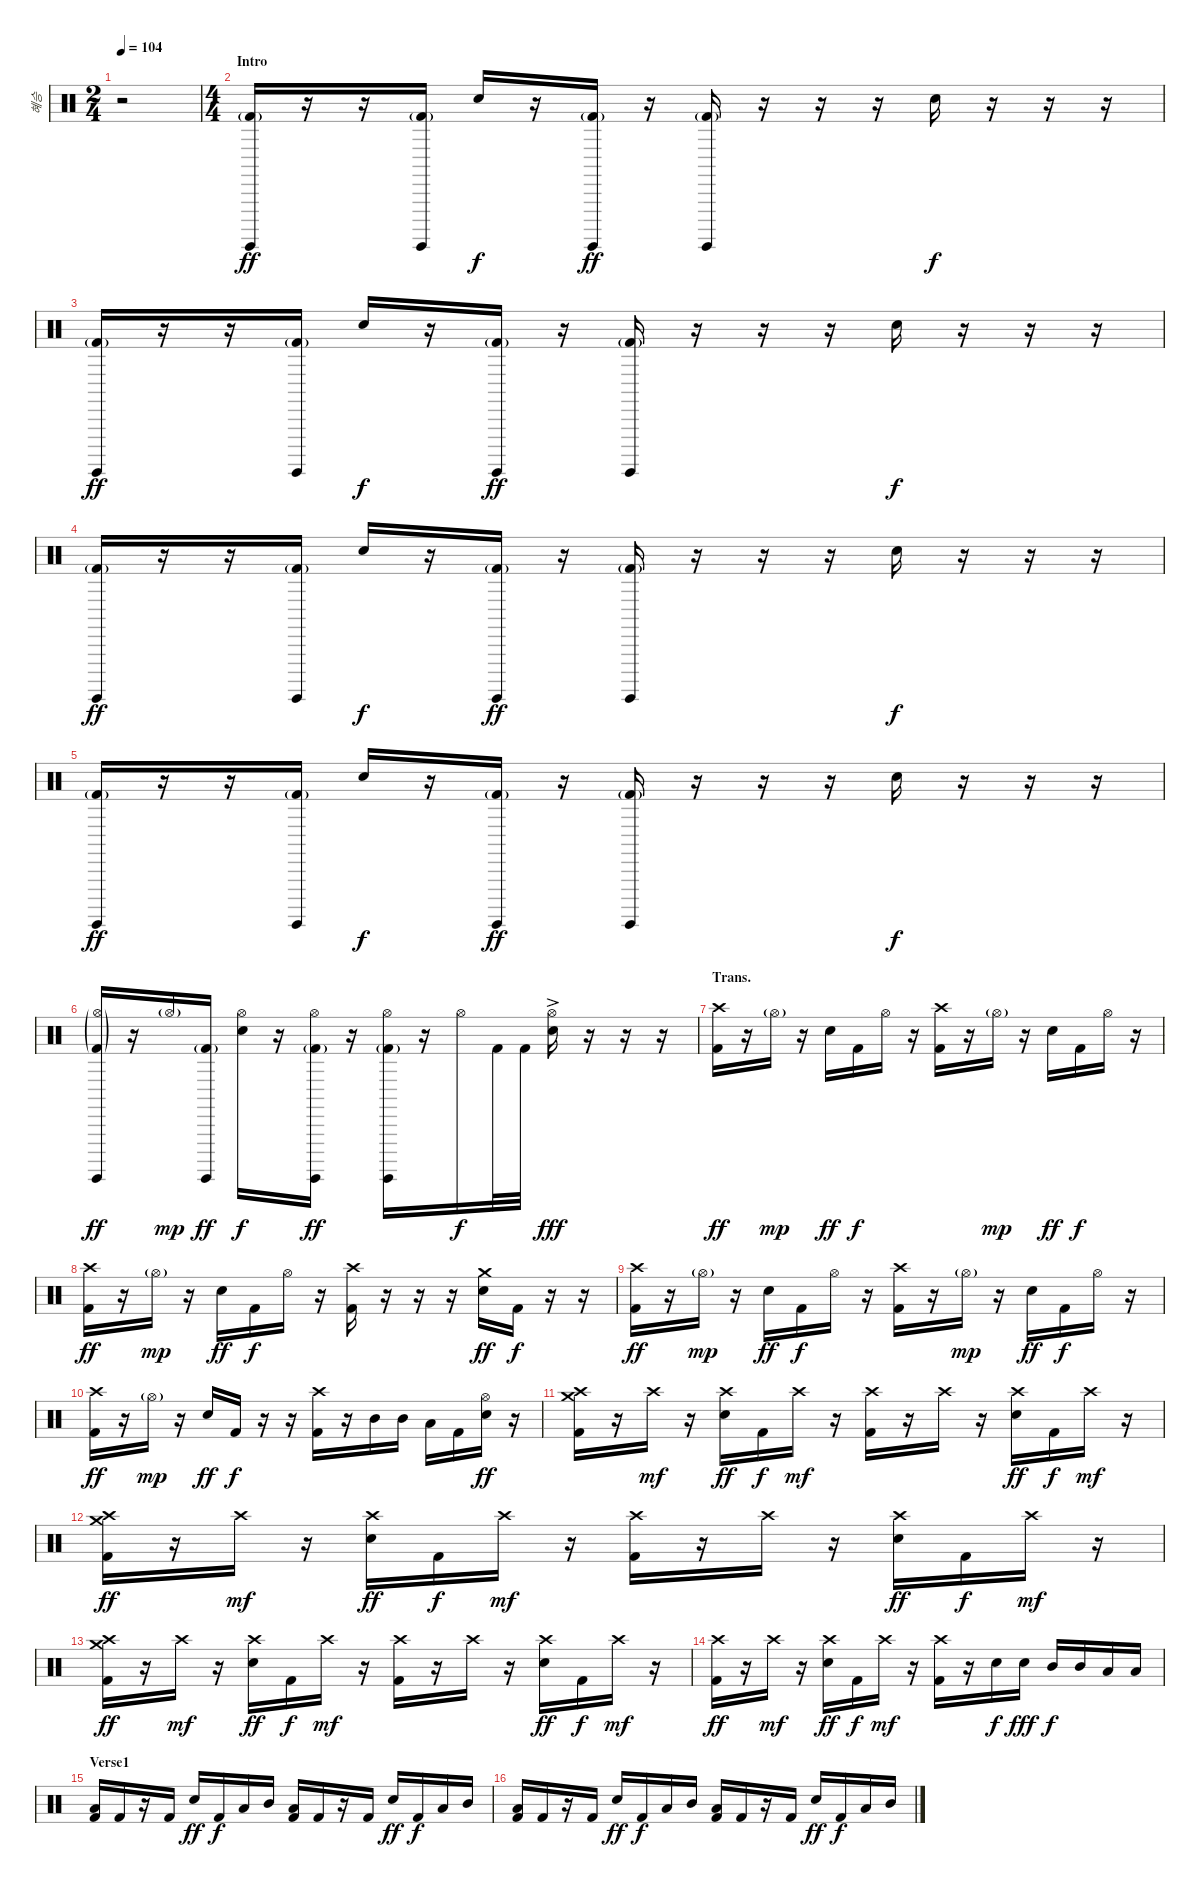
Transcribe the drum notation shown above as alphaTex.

\track ("혜승" "혜승") {instrument percussion}
\staff {score}
\articulation defaults
\ts (2 4)
\tempo 104
\clef neutral
\ks c
r.2{dy ff} |
\ts (4 4)
\section ("" "Intro")
("Kick (hit) 2"{g} "Surdo (hit)").16 r.16 r.16 ("Kick (hit) 2"{g} "Surdo (hit)").16 "Snare (hit) 2".16{dy f} r.16 ("Kick (hit) 2"{g} "Surdo (hit)").16{dy ff} r.16 ("Kick (hit) 2"{g} "Surdo (hit)").16 r.16 r.16 r.16 "Snare (hit) 2".16{dy f} r.16 r.16 r.16 |
("Kick (hit) 2"{g} "Surdo (hit)").16{dy ff} r.16 r.16 ("Kick (hit) 2"{g} "Surdo (hit)").16 "Snare (hit) 2".16{dy f} r.16 ("Kick (hit) 2"{g} "Surdo (hit)").16{dy ff} r.16 ("Kick (hit) 2"{g} "Surdo (hit)").16 r.16 r.16 r.16 "Snare (hit) 2".16{dy f} r.16 r.16 r.16 |
("Kick (hit) 2"{g} "Surdo (hit)").16{dy ff} r.16 r.16 ("Kick (hit) 2"{g} "Surdo (hit)").16 "Snare (hit) 2".16{dy f} r.16 ("Kick (hit) 2"{g} "Surdo (hit)").16{dy ff} r.16 ("Kick (hit) 2"{g} "Surdo (hit)").16 r.16 r.16 r.16 "Snare (hit) 2".16{dy f} r.16 r.16 r.16 |
("Kick (hit) 2"{g} "Surdo (hit)").16{dy ff} r.16 r.16 ("Kick (hit) 2"{g} "Surdo (hit)").16 "Snare (hit) 2".16{dy f} r.16 ("Kick (hit) 2"{g} "Surdo (hit)").16{dy ff} r.16 ("Kick (hit) 2"{g} "Surdo (hit)").16 r.16 r.16 r.16 "Snare (hit) 2".16{dy f} r.16 r.16 r.16 |
("Hi-Hat (open)"{g} "Kick (hit) 2"{g} "Surdo (hit)").16{dy ff} r.16 "Hi-Hat (open)"{g}.16{dy mp} ("Kick (hit) 2"{g} "Surdo (hit)").16{dy ff} ("Hi-Hat (open)" "Snare (hit) 2").16{dy f} r.16 ("Hi-Hat (open)" "Kick (hit) 2"{g} "Surdo (hit)").16{dy ff} r.16 ("Hi-Hat (open)" "Kick (hit) 2"{g} "Surdo (hit)").16 r.16 "Hi-Hat (open)".16{dy f} "Kick (hit) 2".32 "Kick (hit) 2".32 ("Hi-Hat (open)" "Electric Snare (hit)"{ac}).16{dy fff volume 15} r.16{volume 14} r.16 r.16 |
\section ("" "Trans.")
("Crash high (hit)" "Kick (hit) 2").16{dy ff} r.16 "Hi-Hat (open)"{g}.16{dy mp} r.16 "Electric Snare (hit)".16{dy ff} "Kick (hit) 2".16{dy f} "Hi-Hat (open)".16 r.16 ("Crash high (hit)" "Kick (hit) 2").16 r.16 "Hi-Hat (open)"{g}.16{dy mp} r.16 "Electric Snare (hit)".16{dy ff} "Kick (hit) 2".16{dy f} "Hi-Hat (open)".16 r.16 |
("Crash high (hit)" "Kick (hit) 2").16{dy ff} r.16 "Hi-Hat (open)"{g}.16{dy mp} r.16 "Electric Snare (hit)".16{dy ff} "Kick (hit) 2".16{dy f} "Hi-Hat (open)".16 r.16 ("Crash high (hit)" "Kick (hit) 2").16 r.16 r.16 r.16 ("Crash medium (hit)" "Electric Snare (hit)").16{dy ff} "Kick (hit) 2".16{dy f} r.16 r.16 |
("Crash high (hit)" "Kick (hit) 2").16{dy ff} r.16 "Hi-Hat (open)"{g}.16{dy mp} r.16 "Electric Snare (hit)".16{dy ff} "Kick (hit) 2".16{dy f} "Hi-Hat (open)".16 r.16 ("Crash high (hit)" "Kick (hit) 2").16 r.16 "Hi-Hat (open)"{g}.16{dy mp} r.16 "Electric Snare (hit)".16{dy ff} "Kick (hit) 2".16{dy f} "Hi-Hat (open)".16 r.16 |
("Crash high (hit)" "Kick (hit) 2").16{dy ff} r.16 "Hi-Hat (open)"{g}.16{dy mp} r.16 "Electric Snare (hit)".16{dy ff} "Kick (hit) 2".16{dy f} r.16 r.16 ("Crash high (hit)" "Kick (hit) 2").16 r.16 "Mid Tom (hit)".16 "Mid Tom (hit)".16 "Low Tom (hit)".16 "Kick (hit) 2".16 ("Hi-Hat (open)" "Electric Snare (hit)").16{dy ff} r.16 |
("Crash high (hit)" "Crash medium (hit)" "Kick (hit) 2").16 r.16 "Crash high (hit)".16{dy mf} r.16 ("Crash high (hit)" "Electric Snare (hit)").16{dy ff} "Kick (hit) 2".16{dy f} "Crash high (hit)".16{dy mf} r.16 ("Crash high (hit)" "Kick (hit) 2").16 r.16 "Crash high (hit)".16 r.16 ("Crash high (hit)" "Electric Snare (hit)").16{dy ff} "Kick (hit) 2".16{dy f} "Crash high (hit)".16{dy mf} r.16 |
("Crash high (hit)" "Crash medium (hit)" "Kick (hit) 2").16{dy ff} r.16 "Crash high (hit)".16{dy mf} r.16 ("Crash high (hit)" "Electric Snare (hit)").16{dy ff} "Kick (hit) 2".16{dy f} "Crash high (hit)".16{dy mf} r.16 ("Crash high (hit)" "Kick (hit) 2").16 r.16 "Crash high (hit)".16 r.16 ("Crash high (hit)" "Electric Snare (hit)").16{dy ff} "Kick (hit) 2".16{dy f} "Crash high (hit)".16{dy mf} r.16 |
("Crash high (hit)" "Crash medium (hit)" "Kick (hit) 2").16{dy ff} r.16 "Crash high (hit)".16{dy mf} r.16 ("Crash high (hit)" "Electric Snare (hit)").16{dy ff} "Kick (hit) 2".16{dy f} "Crash high (hit)".16{dy mf} r.16 ("Crash high (hit)" "Kick (hit) 2").16 r.16 "Crash high (hit)".16 r.16 ("Crash high (hit)" "Electric Snare (hit)").16{dy ff} "Kick (hit) 2".16{dy f} "Crash high (hit)".16{dy mf} r.16 |
("Crash high (hit)" "Kick (hit) 2").16{dy ff} r.16 "Crash high (hit)".16{dy mf} r.16 ("Crash high (hit)" "Electric Snare (hit)").16{dy ff} "Kick (hit) 2".16{dy f} "Crash high (hit)".16{dy mf} r.16 ("Crash high (hit)" "Kick (hit) 2").16 r.16 "Electric Snare (hit)".16{dy f} "Electric Snare (hit)".16{dy fff} "Mid Tom (hit)".16{dy f} "Mid Tom (hit)".16 "Low Tom (hit)".16 "Low Tom (hit)".16 |
\section ("" "Verse1")
("Low Tom (hit)" "Kick (hit) 2").16 "Kick (hit) 2".16 r.16 "Kick (hit) 2".16 "Electric Snare (hit)".16{dy ff} "Kick (hit) 2".16{dy f} "Low Tom (hit)".16 "Mid Tom (hit)".16 ("Low Tom (hit)" "Kick (hit) 2").16 "Kick (hit) 2".16 r.16 "Kick (hit) 2".16 "Electric Snare (hit)".16{dy ff} "Kick (hit) 2".16{dy f} "Low Tom (hit)".16 "Mid Tom (hit)".16 |
("Low Tom (hit)" "Kick (hit) 2").16 "Kick (hit) 2".16 r.16 "Kick (hit) 2".16 "Electric Snare (hit)".16{dy ff} "Kick (hit) 2".16{dy f} "Low Tom (hit)".16 "Mid Tom (hit)".16 ("Low Tom (hit)" "Kick (hit) 2").16 "Kick (hit) 2".16 r.16 "Kick (hit) 2".16 "Electric Snare (hit)".16{dy ff} "Kick (hit) 2".16{dy f} "Low Tom (hit)".16 "Mid Tom (hit)".16
